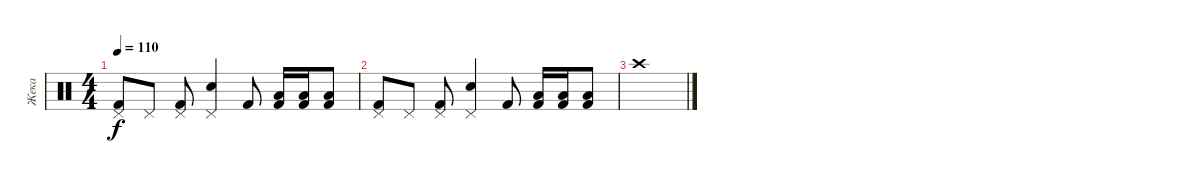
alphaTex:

\track ("Жека" "Жека") {instrument percussion}
\staff {score}
\articulation defaults
\ts (4 4)
\tempo 110
\clef neutral
\ks c
("Pedal Hi-Hat (hit)" "Kick (hit) 2").8{dy f} "Pedal Hi-Hat (hit)".8 ("Pedal Hi-Hat (hit)" "Kick (hit) 2").8 ("Pedal Hi-Hat (hit)" "Snare (hit) 2").4 "Kick (hit) 2".8 ("Low Tom (hit)" "Kick (hit) 2").16 ("Low Tom (hit)" "Kick (hit) 2").16 ("Low Floor Tom (hit)" "Kick (hit) 2").8 |
("Pedal Hi-Hat (hit)" "Kick (hit) 2").8 "Pedal Hi-Hat (hit)".8 ("Pedal Hi-Hat (hit)" "Kick (hit) 2").8 ("Pedal Hi-Hat (hit)" "Snare (hit) 2").4 "Kick (hit) 2".8 ("Low Tom (hit)" "Kick (hit) 2").16 ("Low Tom (hit)" "Kick (hit) 2").16 ("Low Floor Tom (hit)" "Kick (hit) 2").8 |
"Crash high (hit)".1
